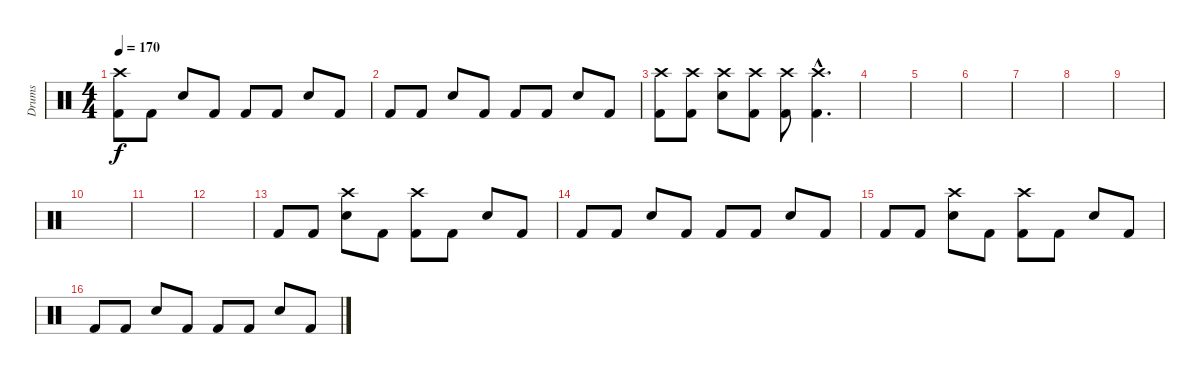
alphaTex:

\track ("Drums" "Drums") {instrument percussion}
\staff {score}
\articulation defaults
\ts (4 4)
\tempo 170
\clef neutral
\ks c
("Kick (hit) 2" "Crash high (hit)").8{dy f} "Kick (hit) 2".8 "Snare (hit) 2".8 "Kick (hit) 2".8 "Kick (hit) 2".8 "Kick (hit) 2".8 "Snare (hit) 2".8 "Kick (hit) 2".8 |
"Kick (hit) 2".8 "Kick (hit) 2".8 "Snare (hit) 2".8 "Kick (hit) 2".8 "Kick (hit) 2".8 "Kick (hit) 2".8 "Snare (hit) 2".8 "Kick (hit) 2".8 |
("Kick (hit) 2" "Crash high (hit)").8 ("Kick (hit) 2" "Crash high (hit)").8 ("Snare (hit) 2" "Crash high (hit)").8 ("Kick (hit) 2" "Crash high (hit)").8 ("Kick (hit) 2" "Crash high (hit)").8 ("Kick (hit) 2"{hac} "Crash high (hit)"{hac}).4{d} |
|
|
|
|
|
|
|
|
|
"Kick (hit) 2".8 "Kick (hit) 2".8 ("Snare (hit) 2" "Crash high (hit)").8 "Kick (hit) 2".8 ("Kick (hit) 2" "Crash high (hit)").8 "Kick (hit) 2".8 "Snare (hit) 2".8 "Kick (hit) 2".8 |
"Kick (hit) 2".8 "Kick (hit) 2".8 "Snare (hit) 2".8 "Kick (hit) 2".8 "Kick (hit) 2".8 "Kick (hit) 2".8 "Snare (hit) 2".8 "Kick (hit) 2".8 |
"Kick (hit) 2".8 "Kick (hit) 2".8 ("Snare (hit) 2" "Crash high (hit)").8 "Kick (hit) 2".8 ("Kick (hit) 2" "Crash high (hit)").8 "Kick (hit) 2".8 "Snare (hit) 2".8 "Kick (hit) 2".8 |
"Kick (hit) 2".8 "Kick (hit) 2".8 "Snare (hit) 2".8 "Kick (hit) 2".8 "Kick (hit) 2".8 "Kick (hit) 2".8 "Snare (hit) 2".8 "Kick (hit) 2".8
